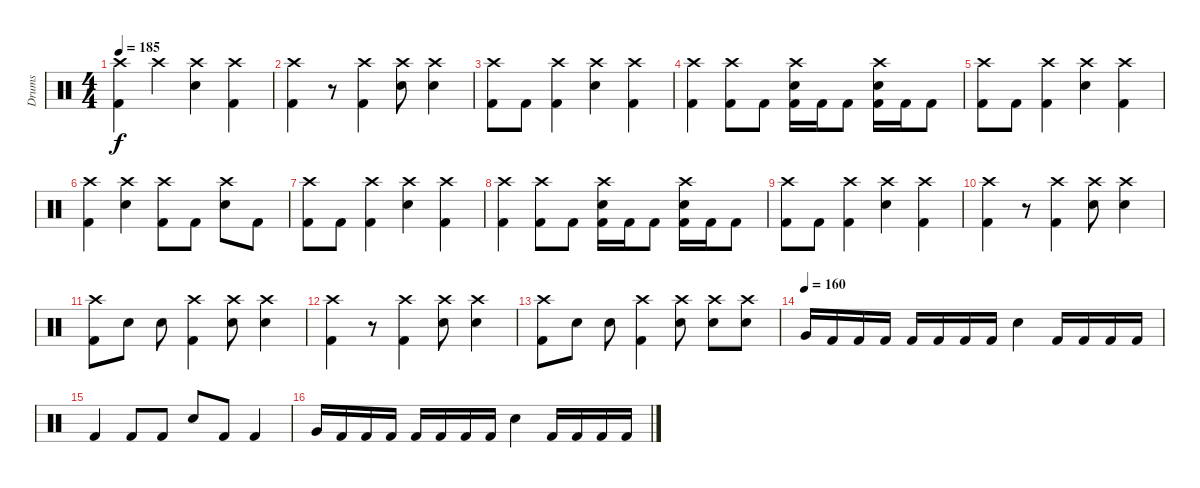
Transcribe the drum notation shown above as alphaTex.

\track ("Drums" "Drums") {instrument percussion}
\staff {score}
\articulation defaults
\ts (4 4)
\tempo 185
\clef neutral
\ks c
("Crash high (hit)" "Kick (hit) 2").4{dy f} "Crash high (hit)".4 ("Crash high (hit)" "Snare (hit) 2").4 ("Crash high (hit)" "Kick (hit) 2").4 |
("Crash high (hit)" "Kick (hit) 2").4 r.8 ("Crash high (hit)" "Kick (hit) 2").4 ("Crash high (hit)" "Snare (hit) 2").8 ("Crash high (hit)" "Snare (hit) 2").4 |
("Crash high (hit)" "Kick (hit) 2").8 "Kick (hit) 2".8 ("Crash high (hit)" "Kick (hit) 2").4 ("Crash high (hit)" "Snare (hit) 2").4 ("Crash high (hit)" "Kick (hit) 2").4 |
("Crash high (hit)" "Kick (hit) 2").4 ("Crash high (hit)" "Kick (hit) 2").8 "Kick (hit) 2".8 ("Crash high (hit)" "Snare (hit) 2" "Kick (hit) 2").16 "Kick (hit) 2".16 "Kick (hit) 2".8 ("Crash high (hit)" "Snare (hit) 2" "Kick (hit) 2").16 "Kick (hit) 2".16 "Kick (hit) 2".8 |
("Crash high (hit)" "Kick (hit) 2").8 "Kick (hit) 2".8 ("Crash high (hit)" "Kick (hit) 2").4 ("Crash high (hit)" "Snare (hit) 2").4 ("Crash high (hit)" "Kick (hit) 2").4 |
("Crash high (hit)" "Kick (hit) 2").4 ("Crash high (hit)" "Snare (hit) 2").4 ("Crash high (hit)" "Kick (hit) 2").8 "Kick (hit) 2".8 ("Crash high (hit)" "Snare (hit) 2").8 "Kick (hit) 2".8 |
("Crash high (hit)" "Kick (hit) 2").8 "Kick (hit) 2".8 ("Crash high (hit)" "Kick (hit) 2").4 ("Crash high (hit)" "Snare (hit) 2").4 ("Crash high (hit)" "Kick (hit) 2").4 |
("Crash high (hit)" "Kick (hit) 2").4 ("Crash high (hit)" "Kick (hit) 2").8 "Kick (hit) 2".8 ("Crash high (hit)" "Snare (hit) 2" "Kick (hit) 2").16 "Kick (hit) 2".16 "Kick (hit) 2".8 ("Crash high (hit)" "Snare (hit) 2" "Kick (hit) 2").16 "Kick (hit) 2".16 "Kick (hit) 2".8 |
("Crash high (hit)" "Kick (hit) 2").8 "Kick (hit) 2".8 ("Crash high (hit)" "Kick (hit) 2").4 ("Crash high (hit)" "Snare (hit) 2").4 ("Crash high (hit)" "Kick (hit) 2").4 |
("Crash high (hit)" "Kick (hit) 2").4 r.8 ("Crash high (hit)" "Kick (hit) 2").4 ("Crash high (hit)" "Snare (hit) 2").8 ("Crash high (hit)" "Snare (hit) 2").4 |
("Crash high (hit)" "Kick (hit) 2").8 "Snare (hit) 2".8 "Snare (hit) 2".8 ("Crash high (hit)" "Kick (hit) 2").4 ("Crash high (hit)" "Snare (hit) 2").8 ("Crash high (hit)" "Snare (hit) 2").4 |
("Crash high (hit)" "Kick (hit) 2").4 r.8 ("Crash high (hit)" "Kick (hit) 2").4 ("Crash high (hit)" "Snare (hit) 2").8 ("Crash high (hit)" "Snare (hit) 2").4 |
("Crash high (hit)" "Kick (hit) 2").8 "Snare (hit) 2".8 "Snare (hit) 2".8 ("Crash high (hit)" "Kick (hit) 2").4 ("Crash high (hit)" "Snare (hit) 2").8 ("Crash high (hit)" "Snare (hit) 2").8 ("Crash high (hit)" "Snare (hit) 2").8 |
\tempo (160)
"Very Low Tom (hit)".16 "Kick (hit) 2".16 "Kick (hit) 2".16 "Kick (hit) 2".16 "Kick (hit) 2".16 "Kick (hit) 2".16 "Kick (hit) 2".16 "Kick (hit) 2".16 "Snare (hit) 2".4 "Kick (hit) 2".16 "Kick (hit) 2".16 "Kick (hit) 2".16 "Kick (hit) 2".16 |
"Kick (hit) 2".4 "Kick (hit) 2".8 "Kick (hit) 2".8 "Snare (hit) 2".8 "Kick (hit) 2".8 "Kick (hit) 2".4 |
"Very Low Tom (hit)".16 "Kick (hit) 2".16 "Kick (hit) 2".16 "Kick (hit) 2".16 "Kick (hit) 2".16 "Kick (hit) 2".16 "Kick (hit) 2".16 "Kick (hit) 2".16 "Snare (hit) 2".4 "Kick (hit) 2".16 "Kick (hit) 2".16 "Kick (hit) 2".16 "Kick (hit) 2".16
